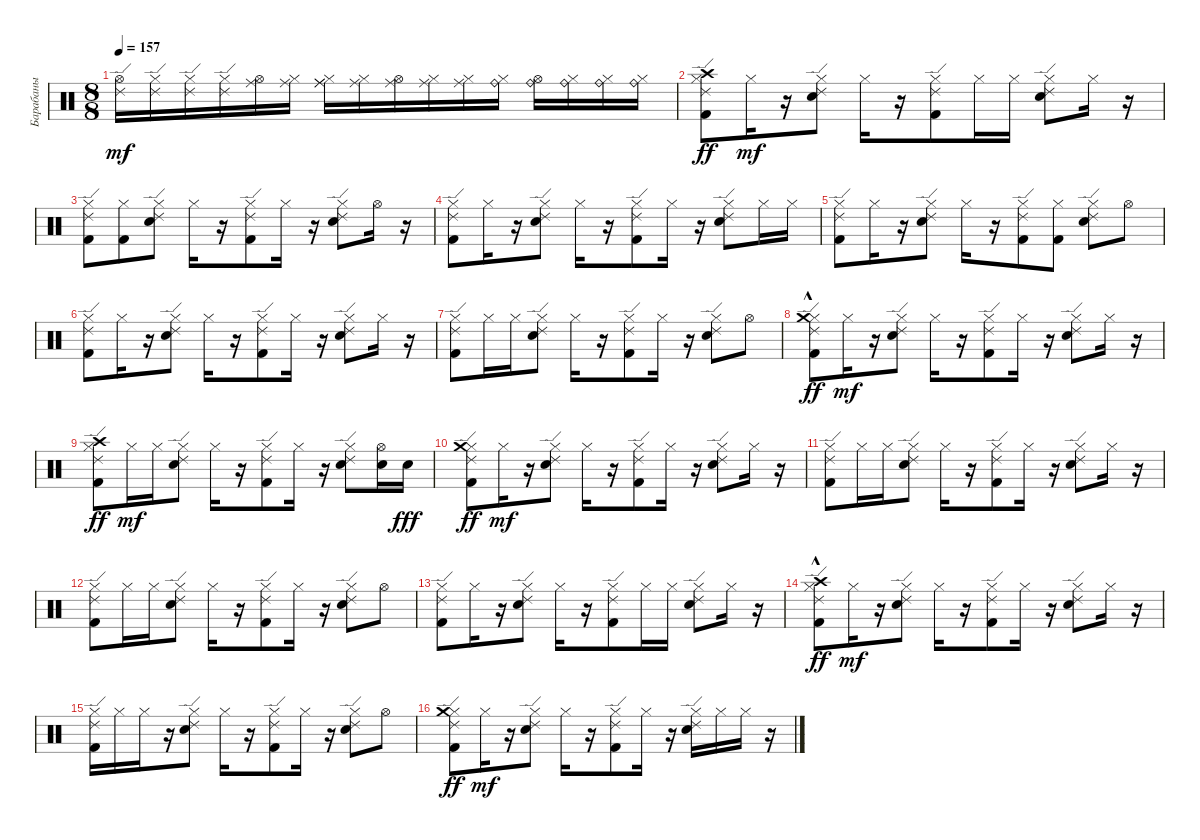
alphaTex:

\track ("Барабаны" "Барабаны") {instrument percussion}
\staff {score}
\articulation defaults
\ts (8 8)
\tempo 157
\clef neutral
\ks c
("Hi-Hat (open)" "Ride (edge) 2").16{dy mf} ("Hi-Hat (closed)" "Ride (edge) 2").16 ("Hi-Hat (closed)" "Ride (edge) 2").16 ("Hi-Hat (closed)" "Ride (edge) 2").16 ("Hi-Hat (open)" "Ride (middle)").16 ("Hi-Hat (closed)" "Ride (middle)").16 ("Hi-Hat (closed)" "Ride (middle)" "Ride (middle)").16 ("Hi-Hat (closed)" "Ride (middle)").16 ("Hi-Hat (open)" "Ride (middle)").16 ("Hi-Hat (closed)" "Ride (middle)").16 ("Hi-Hat (closed)" "Ride (middle)").16 ("Hi-Hat (closed)" "Ride (bell)").16 ("Hi-Hat (open)" "Ride (bell)").16 ("Hi-Hat (closed)" "Ride (bell)").16 ("Hi-Hat (closed)" "Ride (bell)").16 ("Hi-Hat (closed)" "Ride (bell)").16 |
("Kick (hit) 2" "Hi-Hat (closed)" "Ride (edge) 2" "Crash high (hit)").8{dy ff} "Hi-Hat (closed)".16{dy mf} r.16 ("Snare (hit) 2" "Hi-Hat (closed)" "Ride (edge) 2").8 "Hi-Hat (closed)".16 r.16 ("Kick (hit) 2" "Hi-Hat (closed)" "Ride (edge) 2").8 "Hi-Hat (closed)".16 "Hi-Hat (closed)".16 ("Snare (hit) 2" "Hi-Hat (closed)" "Ride (edge) 2").8 "Hi-Hat (closed)".16 r.16 |
("Kick (hit) 2" "Hi-Hat (closed)" "Ride (edge) 2").8 ("Kick (hit) 2" "Hi-Hat (closed)").8 ("Snare (hit) 2" "Hi-Hat (closed)" "Ride (edge) 2").8 "Hi-Hat (closed)".16 r.16 ("Kick (hit) 2" "Hi-Hat (closed)" "Ride (edge) 2").8 "Hi-Hat (closed)".16 r.16 ("Snare (hit) 2" "Hi-Hat (closed)" "Ride (edge) 2").8 "Hi-Hat (open)".16 r.16 |
("Kick (hit) 2" "Hi-Hat (closed)" "Ride (edge) 2").8 "Hi-Hat (closed)".16 r.16 ("Snare (hit) 2" "Hi-Hat (closed)" "Ride (edge) 2").8 "Hi-Hat (closed)".16 r.16 ("Kick (hit) 2" "Hi-Hat (closed)" "Ride (edge) 2").8 "Hi-Hat (closed)".16 r.16 ("Snare (hit) 2" "Hi-Hat (closed)" "Ride (edge) 2").8 "Hi-Hat (closed)".16 "Hi-Hat (closed)".16 |
("Kick (hit) 2" "Hi-Hat (closed)" "Ride (edge) 2").8 "Hi-Hat (closed)".16 r.16 ("Snare (hit) 2" "Hi-Hat (closed)" "Ride (edge) 2").8 "Hi-Hat (closed)".16 r.16 ("Kick (hit) 2" "Hi-Hat (closed)" "Ride (edge) 2").8 ("Kick (hit) 2" "Hi-Hat (closed)").8 ("Snare (hit) 2" "Hi-Hat (closed)" "Ride (edge) 2").8 "Hi-Hat (open)".8 |
("Kick (hit) 2" "Hi-Hat (closed)" "Ride (edge) 2").8 "Hi-Hat (closed)".16 r.16 ("Snare (hit) 2" "Hi-Hat (closed)" "Ride (edge) 2").8 "Hi-Hat (closed)".16 r.16 ("Kick (hit) 2" "Hi-Hat (closed)" "Ride (edge) 2").8 "Hi-Hat (closed)".16 r.16 ("Snare (hit) 2" "Hi-Hat (closed)" "Ride (edge) 2").8 "Hi-Hat (closed)".16 r.16 |
("Kick (hit) 2" "Hi-Hat (closed)" "Ride (edge) 2").8 "Hi-Hat (closed)".16 "Hi-Hat (closed)".16 ("Snare (hit) 2" "Hi-Hat (closed)" "Ride (edge) 2").8 "Hi-Hat (closed)".16 r.16 ("Kick (hit) 2" "Hi-Hat (closed)" "Ride (edge) 2").8 "Hi-Hat (closed)".16 r.16 ("Snare (hit) 2" "Hi-Hat (closed)" "Ride (edge) 2").8 "Hi-Hat (open)".8 |
("Kick (hit) 2" "Hi-Hat (closed)" "Ride (edge) 2" "Crash medium (hit)"{hac}).8{dy ff} "Hi-Hat (closed)".16{dy mf} r.16 ("Snare (hit) 2" "Hi-Hat (closed)" "Ride (edge) 2").8 "Hi-Hat (closed)".16 r.16 ("Kick (hit) 2" "Hi-Hat (closed)" "Ride (edge) 2").8 "Hi-Hat (closed)".16 r.16 ("Snare (hit) 2" "Hi-Hat (closed)" "Ride (edge) 2").8 "Hi-Hat (closed)".16 r.16 |
("Kick (hit) 2" "Hi-Hat (closed)" "Ride (edge) 2" "Crash high (hit)").8{dy ff} "Hi-Hat (closed)".16{dy mf} "Hi-Hat (closed)".16 ("Snare (hit) 2" "Hi-Hat (closed)" "Ride (edge) 2").8 "Hi-Hat (closed)".16 r.16 ("Kick (hit) 2" "Hi-Hat (closed)" "Ride (edge) 2").8 "Hi-Hat (closed)".16 r.16 ("Snare (hit) 2" "Hi-Hat (closed)" "Ride (edge) 2").8 ("Snare (hit) 2" "Hi-Hat (open)").16 "Snare (hit) 2".16{dy fff} |
("Kick (hit) 2" "Hi-Hat (closed)" "Ride (edge) 2" "Crash medium (hit)").8{dy ff} "Hi-Hat (closed)".16{dy mf} r.16 ("Snare (hit) 2" "Hi-Hat (closed)" "Ride (edge) 2").8 "Hi-Hat (closed)".16 r.16 ("Kick (hit) 2" "Hi-Hat (closed)" "Ride (edge) 2").8 "Hi-Hat (closed)".16 r.16 ("Snare (hit) 2" "Hi-Hat (closed)" "Ride (edge) 2").8 "Hi-Hat (closed)".16 r.16 |
("Kick (hit) 2" "Hi-Hat (closed)" "Ride (edge) 2").8 "Hi-Hat (closed)".16 "Hi-Hat (closed)".16 ("Snare (hit) 2" "Hi-Hat (closed)" "Ride (edge) 2").8 "Hi-Hat (closed)".16 r.16 ("Kick (hit) 2" "Hi-Hat (closed)" "Ride (edge) 2").8 "Hi-Hat (closed)".16 r.16 ("Snare (hit) 2" "Hi-Hat (closed)" "Ride (edge) 2").8 "Hi-Hat (closed)".16 r.16 |
("Kick (hit) 2" "Hi-Hat (closed)" "Ride (edge) 2").8 "Hi-Hat (closed)".16 "Hi-Hat (closed)".16 ("Snare (hit) 2" "Hi-Hat (closed)" "Ride (edge) 2").8 "Hi-Hat (closed)".16 r.16 ("Kick (hit) 2" "Hi-Hat (closed)" "Ride (edge) 2").8 "Hi-Hat (closed)".16 r.16 ("Snare (hit) 2" "Hi-Hat (closed)" "Ride (edge) 2").8 "Hi-Hat (open)".8 |
("Kick (hit) 2" "Hi-Hat (closed)" "Ride (edge) 2").8 "Hi-Hat (closed)".16 r.16 ("Snare (hit) 2" "Hi-Hat (closed)" "Ride (edge) 2").8 "Hi-Hat (closed)".16 r.16 ("Kick (hit) 2" "Hi-Hat (closed)" "Ride (edge) 2").8 "Hi-Hat (closed)".16 "Hi-Hat (closed)".16 ("Snare (hit) 2" "Hi-Hat (closed)" "Ride (edge) 2").8 "Hi-Hat (closed)".16 r.16 |
("Kick (hit) 2" "Hi-Hat (closed)" "Ride (edge) 2" "Crash high (hit)"{hac}).8{dy ff} "Hi-Hat (closed)".16{dy mf} r.16 ("Snare (hit) 2" "Hi-Hat (closed)" "Ride (edge) 2").8 "Hi-Hat (closed)".16 r.16 ("Kick (hit) 2" "Hi-Hat (closed)" "Ride (edge) 2").8 "Hi-Hat (closed)".16 r.16 ("Snare (hit) 2" "Hi-Hat (closed)" "Ride (edge) 2").8 "Hi-Hat (closed)".16 r.16 |
("Kick (hit) 2" "Hi-Hat (closed)" "Ride (edge) 2").16 "Hi-Hat (closed)".16 "Hi-Hat (closed)".16 r.16 ("Snare (hit) 2" "Hi-Hat (closed)" "Ride (edge) 2").8 "Hi-Hat (closed)".16 r.16 ("Kick (hit) 2" "Hi-Hat (closed)" "Ride (edge) 2").8 "Hi-Hat (closed)".16 r.16 ("Snare (hit) 2" "Hi-Hat (closed)" "Ride (edge) 2").8 "Hi-Hat (open)".8 |
("Kick (hit) 2" "Hi-Hat (closed)" "Ride (edge) 2" "Crash medium (hit)").8{dy ff} "Hi-Hat (closed)".16{dy mf} r.16 ("Snare (hit) 2" "Hi-Hat (closed)" "Ride (edge) 2").8 "Hi-Hat (closed)".16 r.16 ("Kick (hit) 2" "Hi-Hat (closed)" "Ride (edge) 2").8 "Hi-Hat (closed)".16 r.16 ("Snare (hit) 2" "Hi-Hat (closed)" "Ride (edge) 2").16 "Hi-Hat (closed)".16 "Hi-Hat (closed)".16 r.16
